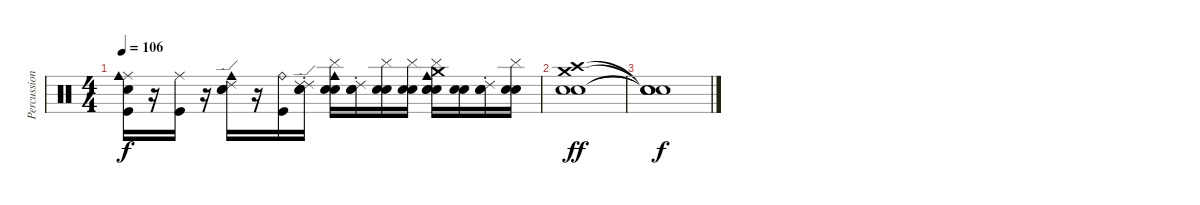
\track ("Percussions (Zaac)" "Percussion") {instrument percussion}
\staff {score}
\articulation defaults
\ts (4 4)
\tempo 106
\clef neutral
\ks c
("Snare (hit)" "Kick (hit)" "Ride (middle)" "Cowbell medium (hit)").16{dy f} r.16 ("Kick (hit)" "Ride (middle)").16 r.16 ("Hand Clap (hit)" "Electric Snare (hit)" "Cowbell medium (hit)" "Ride (edge) 2").16 r.16 ("Kick (hit)" "Ride (bell)").16 ("Snare (hit)" "Ride (choke) 2" "Electric Snare (hit)" "Ride (edge) 2").16 ("Snare (hit)" "Cymbal (hit)" "Electric Snare (hit)" "Cowbell medium (hit)").16 ("Snare (hit)" "Ride (choke) 2" "Electric Snare (hit)").16 ("Snare (hit)" "Cymbal (hit)" "Electric Snare (hit)").16 ("Snare (hit)" "Cymbal (hit)" "Electric Snare (hit)").16 ("Snare (hit)" "Hand Clap (hit)" "Cymbal (hit)" "Electric Snare (hit)" "Cowbell medium (hit)" "Crash medium (hit)").16 ("Snare (hit)" "Electric Snare (hit)").16 ("Snare (hit)" "Ride (choke) 2" "Electric Snare (hit)").16 ("Snare (hit)" "Cymbal (hit)" "Electric Snare (hit)").16 |
("Snare (hit)" "Electric Snare (hit)" "Crash high (hit)" "Crash medium (hit)").1{dy ff} |
("Snare (hit)"{t} "Snare (hit)"{t} "Snare (hit)"{t} "Snare (hit)"{t}).1{dy f}
